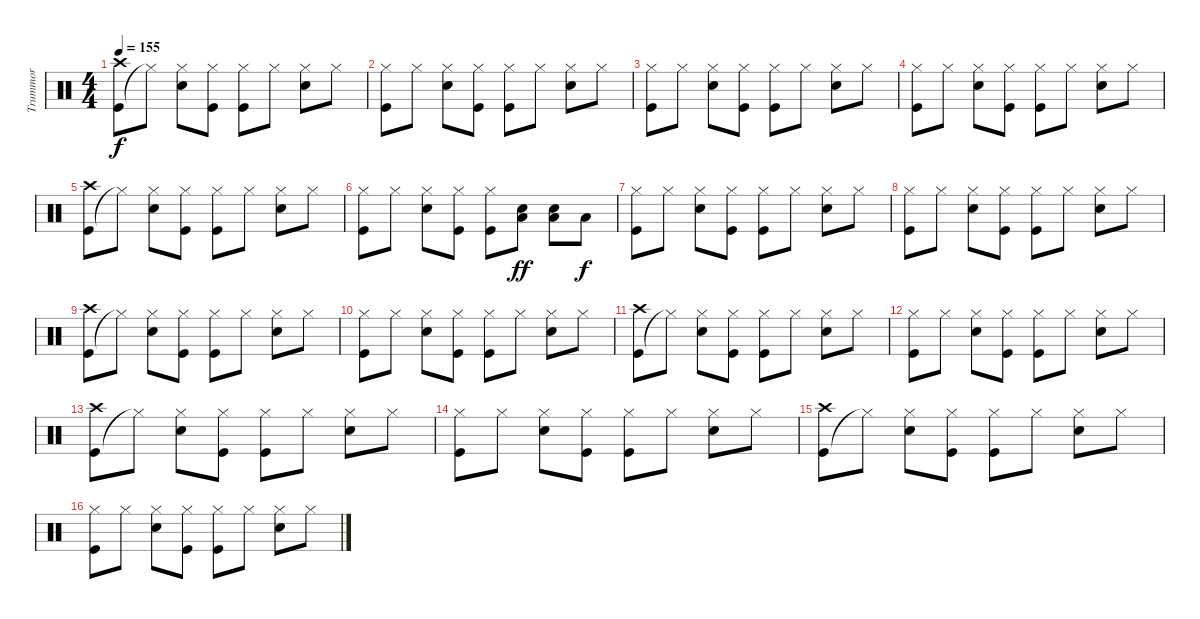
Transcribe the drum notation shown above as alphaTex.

\track ("Trummor" "Trummor") {instrument percussion}
\staff {score}
\articulation defaults
\ts (4 4)
\tempo 155
\clef neutral
\ks c
("Kick (hit)" "Crash high (hit)").8{dy f} "Hi-Hat (closed)"{t}.8 ("Snare (hit) 2" "Hi-Hat (closed)").8 ("Kick (hit)" "Hi-Hat (closed)").8 ("Kick (hit)" "Hi-Hat (closed)").8 "Hi-Hat (closed)".8 ("Snare (hit) 2" "Hi-Hat (closed)").8 "Hi-Hat (closed)".8 |
("Kick (hit)" "Hi-Hat (closed)").8 "Hi-Hat (closed)".8 ("Snare (hit) 2" "Hi-Hat (closed)").8 ("Kick (hit)" "Hi-Hat (closed)").8 ("Kick (hit)" "Hi-Hat (closed)").8 "Hi-Hat (closed)".8 ("Snare (hit) 2" "Hi-Hat (closed)").8 "Hi-Hat (closed)".8 |
("Kick (hit)" "Hi-Hat (closed)").8 "Hi-Hat (closed)".8 ("Snare (hit) 2" "Hi-Hat (closed)").8 ("Kick (hit)" "Hi-Hat (closed)").8 ("Kick (hit)" "Hi-Hat (closed)").8 "Hi-Hat (closed)".8 ("Snare (hit) 2" "Hi-Hat (closed)").8 "Hi-Hat (closed)".8 |
("Kick (hit)" "Hi-Hat (closed)").8 "Hi-Hat (closed)".8 ("Snare (hit) 2" "Hi-Hat (closed)").8 ("Kick (hit)" "Hi-Hat (closed)").8 ("Kick (hit)" "Hi-Hat (closed)").8 "Hi-Hat (closed)".8 ("Snare (hit) 2" "Hi-Hat (closed)").8 "Hi-Hat (closed)".8 |
("Kick (hit)" "Crash high (hit)").8 "Hi-Hat (closed)"{t}.8 ("Snare (hit) 2" "Hi-Hat (closed)").8 ("Kick (hit)" "Hi-Hat (closed)").8 ("Kick (hit)" "Hi-Hat (closed)").8 "Hi-Hat (closed)".8 ("Snare (hit) 2" "Hi-Hat (closed)").8 "Hi-Hat (closed)".8 |
("Kick (hit)" "Hi-Hat (closed)").8 "Hi-Hat (closed)".8 ("Snare (hit) 2" "Hi-Hat (closed)").8 ("Kick (hit)" "Hi-Hat (closed)").8 ("Kick (hit)" "Hi-Hat (closed)").8 ("Snare (hit) 2" "Low Floor Tom (hit)").8{dy ff} ("Snare (hit) 2" "Low Floor Tom (hit)").8 "Low Floor Tom (hit)".8{dy f} |
("Kick (hit)" "Hi-Hat (closed)").8 "Hi-Hat (closed)".8 ("Snare (hit) 2" "Hi-Hat (closed)").8 ("Kick (hit)" "Hi-Hat (closed)").8 ("Kick (hit)" "Hi-Hat (closed)").8 "Hi-Hat (closed)".8 ("Snare (hit) 2" "Hi-Hat (closed)").8 "Hi-Hat (closed)".8 |
("Kick (hit)" "Hi-Hat (closed)").8 "Hi-Hat (closed)".8 ("Snare (hit) 2" "Hi-Hat (closed)").8 ("Kick (hit)" "Hi-Hat (closed)").8 ("Kick (hit)" "Hi-Hat (closed)").8 "Hi-Hat (closed)".8 ("Snare (hit) 2" "Hi-Hat (closed)").8 "Hi-Hat (closed)".8 |
("Kick (hit)" "Crash high (hit)").8 "Hi-Hat (closed)"{t}.8 ("Snare (hit) 2" "Hi-Hat (closed)").8 ("Kick (hit)" "Hi-Hat (closed)").8 ("Kick (hit)" "Hi-Hat (closed)").8 "Hi-Hat (closed)".8 ("Snare (hit) 2" "Hi-Hat (closed)").8 "Hi-Hat (closed)".8 |
("Kick (hit)" "Hi-Hat (closed)").8 "Hi-Hat (closed)".8 ("Snare (hit) 2" "Hi-Hat (closed)").8 ("Kick (hit)" "Hi-Hat (closed)").8 ("Kick (hit)" "Hi-Hat (closed)").8 "Hi-Hat (closed)".8 ("Snare (hit) 2" "Hi-Hat (closed)").8 "Hi-Hat (closed)".8 |
("Kick (hit)" "Crash high (hit)").8 "Hi-Hat (closed)"{t}.8 ("Snare (hit) 2" "Hi-Hat (closed)").8 ("Kick (hit)" "Hi-Hat (closed)").8 ("Kick (hit)" "Hi-Hat (closed)").8 "Hi-Hat (closed)".8 ("Snare (hit) 2" "Hi-Hat (closed)").8 "Hi-Hat (closed)".8 |
("Kick (hit)" "Hi-Hat (closed)").8 "Hi-Hat (closed)".8 ("Snare (hit) 2" "Hi-Hat (closed)").8 ("Kick (hit)" "Hi-Hat (closed)").8 ("Kick (hit)" "Hi-Hat (closed)").8 "Hi-Hat (closed)".8 ("Snare (hit) 2" "Hi-Hat (closed)").8 "Hi-Hat (closed)".8 |
("Kick (hit)" "Crash high (hit)").8 "Hi-Hat (closed)"{t}.8 ("Snare (hit) 2" "Hi-Hat (closed)").8 ("Kick (hit)" "Hi-Hat (closed)").8 ("Kick (hit)" "Hi-Hat (closed)").8 "Hi-Hat (closed)".8 ("Snare (hit) 2" "Hi-Hat (closed)").8 "Hi-Hat (closed)".8 |
("Kick (hit)" "Hi-Hat (closed)").8 "Hi-Hat (closed)".8 ("Snare (hit) 2" "Hi-Hat (closed)").8 ("Kick (hit)" "Hi-Hat (closed)").8 ("Kick (hit)" "Hi-Hat (closed)").8 "Hi-Hat (closed)".8 ("Snare (hit) 2" "Hi-Hat (closed)").8 "Hi-Hat (closed)".8 |
("Kick (hit)" "Crash high (hit)").8 "Hi-Hat (closed)"{t}.8 ("Snare (hit) 2" "Hi-Hat (closed)").8 ("Kick (hit)" "Hi-Hat (closed)").8 ("Kick (hit)" "Hi-Hat (closed)").8 "Hi-Hat (closed)".8 ("Snare (hit) 2" "Hi-Hat (closed)").8 "Hi-Hat (closed)".8 |
("Kick (hit)" "Hi-Hat (closed)").8 "Hi-Hat (closed)".8 ("Snare (hit) 2" "Hi-Hat (closed)").8 ("Kick (hit)" "Hi-Hat (closed)").8 ("Kick (hit)" "Hi-Hat (closed)").8 "Hi-Hat (closed)".8 ("Snare (hit) 2" "Hi-Hat (closed)").8 "Hi-Hat (closed)".8
